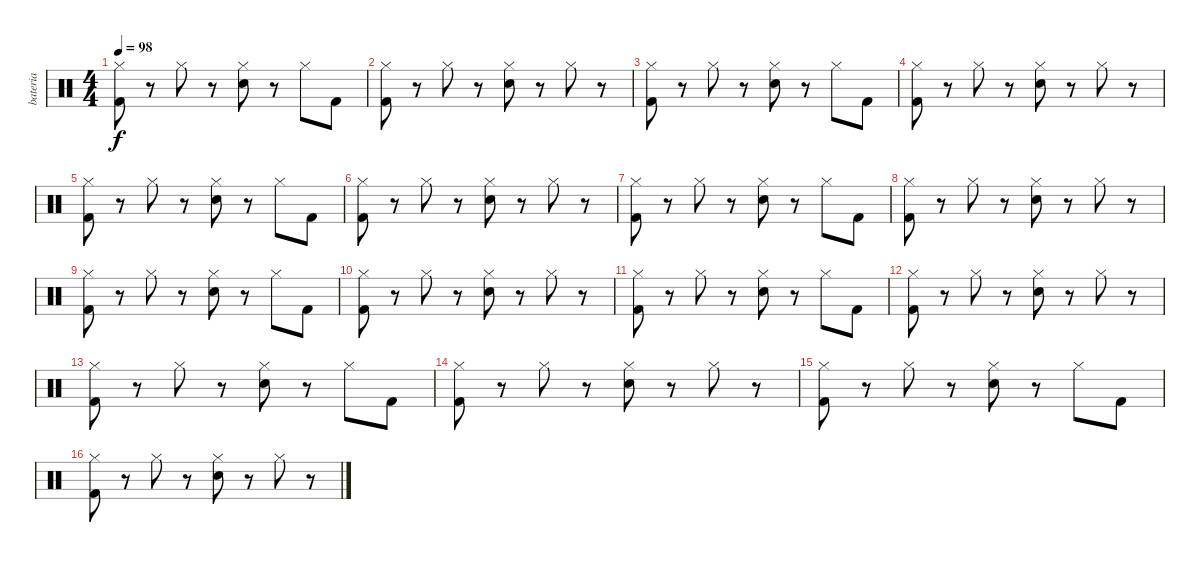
\track ("bateria" "bateria") {instrument percussion}
\staff {score}
\articulation defaults
\ts (4 4)
\tempo 98
\clef neutral
\ks c
("Hi-Hat (closed)" "Kick (hit) 2").8{dy f} r.8 "Hi-Hat (closed)".8 r.8 ("Hi-Hat (closed)" "Snare (hit) 2").8 r.8 "Hi-Hat (closed)".8 "Kick (hit) 2".8 |
("Hi-Hat (closed)" "Kick (hit) 2").8 r.8 "Hi-Hat (closed)".8 r.8 ("Hi-Hat (closed)" "Snare (hit) 2").8 r.8 "Hi-Hat (closed)".8 r.8 |
("Hi-Hat (closed)" "Kick (hit) 2").8 r.8 "Hi-Hat (closed)".8 r.8 ("Hi-Hat (closed)" "Snare (hit) 2").8 r.8 "Hi-Hat (closed)".8 "Kick (hit) 2".8 |
("Hi-Hat (closed)" "Kick (hit) 2").8 r.8 "Hi-Hat (closed)".8 r.8 ("Hi-Hat (closed)" "Snare (hit) 2").8 r.8 "Hi-Hat (closed)".8 r.8 |
("Hi-Hat (closed)" "Kick (hit) 2").8 r.8 "Hi-Hat (closed)".8 r.8 ("Hi-Hat (closed)" "Snare (hit) 2").8 r.8 "Hi-Hat (closed)".8 "Kick (hit) 2".8 |
("Hi-Hat (closed)" "Kick (hit) 2").8 r.8 "Hi-Hat (closed)".8 r.8 ("Hi-Hat (closed)" "Snare (hit) 2").8 r.8 "Hi-Hat (closed)".8 r.8 |
("Hi-Hat (closed)" "Kick (hit) 2").8 r.8 "Hi-Hat (closed)".8 r.8 ("Hi-Hat (closed)" "Snare (hit) 2").8 r.8 "Hi-Hat (closed)".8 "Kick (hit) 2".8 |
("Hi-Hat (closed)" "Kick (hit) 2").8 r.8 "Hi-Hat (closed)".8 r.8 ("Hi-Hat (closed)" "Snare (hit) 2").8 r.8 "Hi-Hat (closed)".8 r.8 |
("Hi-Hat (closed)" "Kick (hit) 2").8 r.8 "Hi-Hat (closed)".8 r.8 ("Hi-Hat (closed)" "Snare (hit) 2").8 r.8 "Hi-Hat (closed)".8 "Kick (hit) 2".8 |
("Hi-Hat (closed)" "Kick (hit) 2").8 r.8 "Hi-Hat (closed)".8 r.8 ("Hi-Hat (closed)" "Snare (hit) 2").8 r.8 "Hi-Hat (closed)".8 r.8 |
("Hi-Hat (closed)" "Kick (hit) 2").8 r.8 "Hi-Hat (closed)".8 r.8 ("Hi-Hat (closed)" "Snare (hit) 2").8 r.8 "Hi-Hat (closed)".8 "Kick (hit) 2".8 |
("Hi-Hat (closed)" "Kick (hit) 2").8 r.8 "Hi-Hat (closed)".8 r.8 ("Hi-Hat (closed)" "Snare (hit) 2").8 r.8 "Hi-Hat (closed)".8 r.8 |
("Hi-Hat (closed)" "Kick (hit) 2").8 r.8 "Hi-Hat (closed)".8 r.8 ("Hi-Hat (closed)" "Snare (hit) 2").8 r.8 "Hi-Hat (closed)".8 "Kick (hit) 2".8 |
("Hi-Hat (closed)" "Kick (hit) 2").8 r.8 "Hi-Hat (closed)".8 r.8 ("Hi-Hat (closed)" "Snare (hit) 2").8 r.8 "Hi-Hat (closed)".8 r.8 |
("Hi-Hat (closed)" "Kick (hit) 2").8 r.8 "Hi-Hat (closed)".8 r.8 ("Hi-Hat (closed)" "Snare (hit) 2").8 r.8 "Hi-Hat (closed)".8 "Kick (hit) 2".8 |
("Hi-Hat (closed)" "Kick (hit) 2").8 r.8 "Hi-Hat (closed)".8 r.8 ("Hi-Hat (closed)" "Snare (hit) 2").8 r.8 "Hi-Hat (closed)".8 r.8
